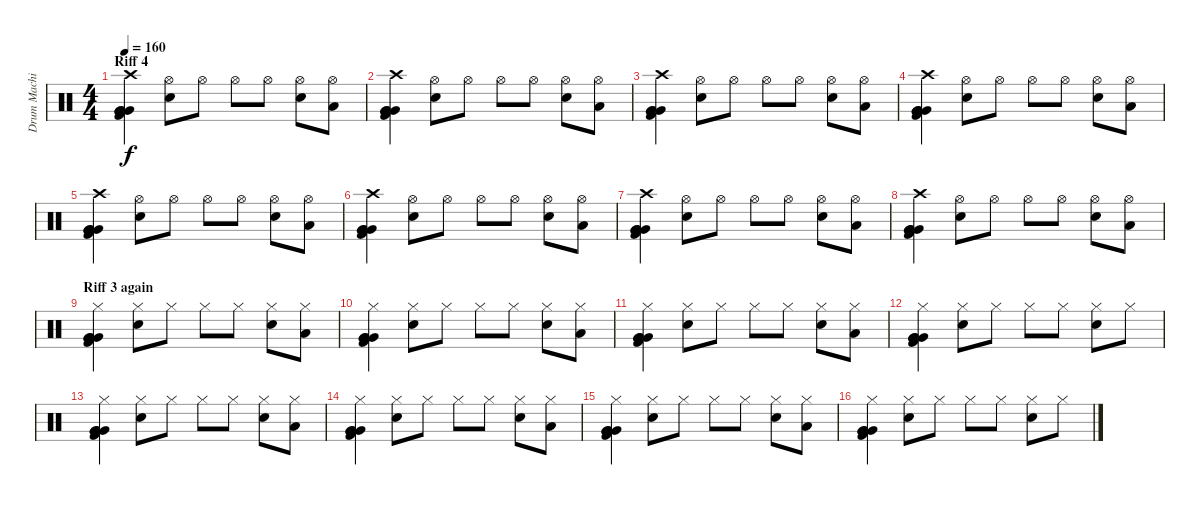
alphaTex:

\track ("Drum Machine" "Drum Machi") {instrument percussion}
\staff {score}
\articulation defaults
\ts (4 4)
\section ("" "Riff 4")
\tempo 160
\clef neutral
\ks c
("Crash high (hit)" "Very Low Tom (hit)" "Very Low Tom (hit)" "Very Low Tom (hit)" "Kick (hit) 2").4{dy f} ("Hi-Hat (open)" "Electric Snare (hit)").8 "Hi-Hat (open)".8 "Hi-Hat (open)".8 "Hi-Hat (open)".8 ("Hi-Hat (open)" "Electric Snare (hit)").8 ("Hi-Hat (open)" "Low Floor Tom (hit)").8 |
("Crash high (hit)" "Very Low Tom (hit)" "Very Low Tom (hit)" "Very Low Tom (hit)" "Kick (hit) 2").4 ("Hi-Hat (open)" "Electric Snare (hit)").8 "Hi-Hat (open)".8 "Hi-Hat (open)".8 "Hi-Hat (open)".8 ("Hi-Hat (open)" "Electric Snare (hit)").8 ("Hi-Hat (open)" "Low Floor Tom (hit)").8 |
("Crash high (hit)" "Very Low Tom (hit)" "Very Low Tom (hit)" "Very Low Tom (hit)" "Kick (hit) 2").4 ("Hi-Hat (open)" "Electric Snare (hit)").8 "Hi-Hat (open)".8 "Hi-Hat (open)".8 "Hi-Hat (open)".8 ("Hi-Hat (open)" "Electric Snare (hit)").8 ("Hi-Hat (open)" "Low Floor Tom (hit)").8 |
("Crash high (hit)" "Very Low Tom (hit)" "Very Low Tom (hit)" "Very Low Tom (hit)" "Kick (hit) 2").4 ("Hi-Hat (open)" "Electric Snare (hit)").8 "Hi-Hat (open)".8 "Hi-Hat (open)".8 "Hi-Hat (open)".8 ("Hi-Hat (open)" "Electric Snare (hit)").8 ("Hi-Hat (open)" "Low Floor Tom (hit)").8 |
("Crash high (hit)" "Very Low Tom (hit)" "Very Low Tom (hit)" "Very Low Tom (hit)" "Kick (hit) 2").4 ("Hi-Hat (open)" "Electric Snare (hit)").8 "Hi-Hat (open)".8 "Hi-Hat (open)".8 "Hi-Hat (open)".8 ("Hi-Hat (open)" "Electric Snare (hit)").8 ("Hi-Hat (open)" "Low Floor Tom (hit)").8 |
("Crash high (hit)" "Very Low Tom (hit)" "Very Low Tom (hit)" "Very Low Tom (hit)" "Kick (hit) 2").4 ("Hi-Hat (open)" "Electric Snare (hit)").8 "Hi-Hat (open)".8 "Hi-Hat (open)".8 "Hi-Hat (open)".8 ("Hi-Hat (open)" "Electric Snare (hit)").8 ("Hi-Hat (open)" "Low Floor Tom (hit)").8 |
("Crash high (hit)" "Very Low Tom (hit)" "Very Low Tom (hit)" "Very Low Tom (hit)" "Kick (hit) 2").4 ("Hi-Hat (open)" "Electric Snare (hit)").8 "Hi-Hat (open)".8 "Hi-Hat (open)".8 "Hi-Hat (open)".8 ("Hi-Hat (open)" "Electric Snare (hit)").8 ("Hi-Hat (open)" "Low Floor Tom (hit)").8 |
("Crash high (hit)" "Very Low Tom (hit)" "Very Low Tom (hit)" "Very Low Tom (hit)" "Kick (hit) 2").4 ("Hi-Hat (open)" "Electric Snare (hit)").8 "Hi-Hat (open)".8 "Hi-Hat (open)".8 "Hi-Hat (open)".8 ("Hi-Hat (open)" "Electric Snare (hit)").8 ("Hi-Hat (open)" "Low Floor Tom (hit)").8 |
\section ("" "Riff 3 again")
("Hi-Hat (closed)" "Very Low Tom (hit)" "Very Low Tom (hit)" "Very Low Tom (hit)" "Kick (hit) 2").4 ("Hi-Hat (closed)" "Electric Snare (hit)").8 "Hi-Hat (closed)".8 "Hi-Hat (closed)".8 "Hi-Hat (closed)".8 ("Hi-Hat (closed)" "Electric Snare (hit)").8 ("Hi-Hat (closed)" "Low Floor Tom (hit)").8 |
("Hi-Hat (closed)" "Very Low Tom (hit)" "Very Low Tom (hit)" "Very Low Tom (hit)" "Kick (hit) 2").4 ("Hi-Hat (closed)" "Electric Snare (hit)").8 "Hi-Hat (closed)".8 "Hi-Hat (closed)".8 "Hi-Hat (closed)".8 ("Hi-Hat (closed)" "Electric Snare (hit)").8 ("Hi-Hat (closed)" "Low Floor Tom (hit)").8 |
("Hi-Hat (closed)" "Very Low Tom (hit)" "Very Low Tom (hit)" "Very Low Tom (hit)" "Kick (hit) 2").4 ("Hi-Hat (closed)" "Electric Snare (hit)").8 "Hi-Hat (closed)".8 "Hi-Hat (closed)".8 "Hi-Hat (closed)".8 ("Hi-Hat (closed)" "Electric Snare (hit)").8 ("Hi-Hat (closed)" "Low Floor Tom (hit)").8 |
("Hi-Hat (closed)" "Very Low Tom (hit)" "Very Low Tom (hit)" "Very Low Tom (hit)" "Kick (hit) 2").4 ("Hi-Hat (closed)" "Electric Snare (hit)").8 "Hi-Hat (closed)".8 "Hi-Hat (closed)".8 "Hi-Hat (closed)".8 ("Hi-Hat (closed)" "Electric Snare (hit)").8 "Hi-Hat (closed)".8 |
("Hi-Hat (closed)" "Very Low Tom (hit)" "Very Low Tom (hit)" "Very Low Tom (hit)" "Kick (hit) 2").4 ("Hi-Hat (closed)" "Electric Snare (hit)").8 "Hi-Hat (closed)".8 "Hi-Hat (closed)".8 "Hi-Hat (closed)".8 ("Hi-Hat (closed)" "Electric Snare (hit)").8 ("Hi-Hat (closed)" "Low Floor Tom (hit)").8 |
("Hi-Hat (closed)" "Very Low Tom (hit)" "Very Low Tom (hit)" "Very Low Tom (hit)" "Kick (hit) 2").4 ("Hi-Hat (closed)" "Electric Snare (hit)").8 "Hi-Hat (closed)".8 "Hi-Hat (closed)".8 "Hi-Hat (closed)".8 ("Hi-Hat (closed)" "Electric Snare (hit)").8 ("Hi-Hat (closed)" "Low Floor Tom (hit)").8 |
("Hi-Hat (closed)" "Very Low Tom (hit)" "Very Low Tom (hit)" "Very Low Tom (hit)" "Kick (hit) 2").4 ("Hi-Hat (closed)" "Electric Snare (hit)").8 "Hi-Hat (closed)".8 "Hi-Hat (closed)".8 "Hi-Hat (closed)".8 ("Hi-Hat (closed)" "Electric Snare (hit)").8 ("Hi-Hat (closed)" "Low Floor Tom (hit)").8 |
("Hi-Hat (closed)" "Very Low Tom (hit)" "Very Low Tom (hit)" "Very Low Tom (hit)" "Kick (hit) 2").4 ("Hi-Hat (closed)" "Electric Snare (hit)").8 "Hi-Hat (closed)".8 "Hi-Hat (closed)".8 "Hi-Hat (closed)".8 ("Hi-Hat (closed)" "Electric Snare (hit)").8 "Hi-Hat (closed)".8
